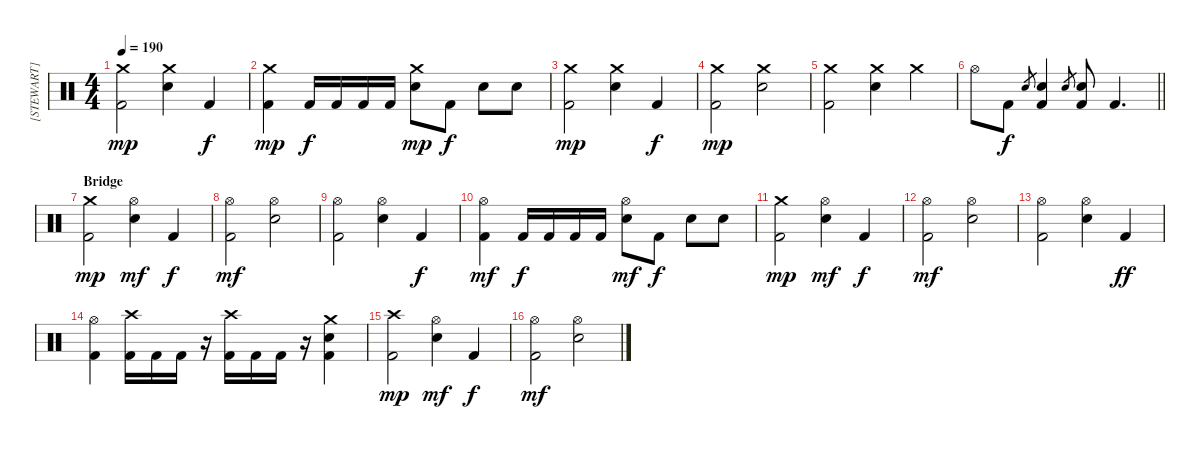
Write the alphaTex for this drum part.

\track ("[STEWART]" "[STEWART]") {instrument percussion}
\staff {score}
\articulation defaults
\ts (4 4)
\tempo 190
\clef neutral
\ks c
("Crash medium (hit)" "Kick (hit) 2").2{dy mp} ("Crash medium (hit)" "Electric Snare (hit)").4 "Kick (hit) 2".4{dy f} |
("Crash medium (hit)" "Kick (hit) 2").4{dy mp} "Kick (hit) 2".16{dy f} "Kick (hit) 2".16 "Kick (hit) 2".16 "Kick (hit) 2".16 ("Crash medium (hit)" "Electric Snare (hit)").8{dy mp} "Kick (hit) 2".8{dy f} "Electric Snare (hit)".8 "Electric Snare (hit)".8 |
("Crash medium (hit)" "Kick (hit) 2").2{dy mp} ("Crash medium (hit)" "Electric Snare (hit)").4 "Kick (hit) 2".4{dy f} |
("Crash medium (hit)" "Kick (hit) 2").2{dy mp} ("Crash medium (hit)" "Electric Snare (hit)").2 |
("Crash medium (hit)" "Kick (hit) 2").2 ("Crash medium (hit)" "Electric Snare (hit)").4 "Crash medium (hit)".4 |
\barLineRight lightlight "Hi-Hat (open)".8 "Kick (hit) 2".8{dy f} "Electric Snare (hit)".8{gr}
("Electric Snare (hit)" "Kick (hit) 2").4 "Electric Snare (hit)".8{gr} ("Electric Snare (hit)" "Kick (hit) 2").8 "Kick (hit) 2".4{d} |
\section ("" "Bridge ")
("Crash medium (hit)" "Kick (hit) 2").2{dy mp} ("Hi-Hat (open)" "Electric Snare (hit)").4{dy mf} "Kick (hit) 2".4{dy f} |
("Hi-Hat (open)" "Kick (hit) 2").2{dy mf} ("Hi-Hat (open)" "Electric Snare (hit)").2 |
("Hi-Hat (open)" "Kick (hit) 2").2 ("Hi-Hat (open)" "Electric Snare (hit)").4 "Kick (hit) 2".4{dy f} |
("Hi-Hat (open)" "Kick (hit) 2").4{dy mf} "Kick (hit) 2".16{dy f} "Kick (hit) 2".16 "Kick (hit) 2".16 "Kick (hit) 2".16 ("Hi-Hat (open)" "Electric Snare (hit)").8{dy mf} "Kick (hit) 2".8{dy f} "Electric Snare (hit)".8 "Electric Snare (hit)".8 |
("Crash medium (hit)" "Kick (hit) 2").2{dy mp} ("Hi-Hat (open)" "Electric Snare (hit)").4{dy mf} "Kick (hit) 2".4{dy f} |
("Hi-Hat (open)" "Kick (hit) 2").2{dy mf} ("Hi-Hat (open)" "Electric Snare (hit)").2 |
("Hi-Hat (open)" "Kick (hit) 2").2 ("Hi-Hat (open)" "Electric Snare (hit)").4 "Kick (hit) 2".4{dy ff} |
("Hi-Hat (open)" "Kick (hit) 2").4 ("Crash high (hit)" "Kick (hit) 2").16 "Kick (hit) 2".16 "Kick (hit) 2".16 r.16 ("Crash high (hit)" "Kick (hit) 2").16 "Kick (hit) 2".16 "Kick (hit) 2".16 r.16 ("Crash medium (hit)" "Electric Snare (hit)" "Kick (hit) 2").4 |
("Crash high (hit)" "Kick (hit) 2").2{dy mp} ("Hi-Hat (open)" "Electric Snare (hit)").4{dy mf} "Kick (hit) 2".4{dy f} |
("Hi-Hat (open)" "Kick (hit) 2").2{dy mf} ("Hi-Hat (open)" "Electric Snare (hit)").2
